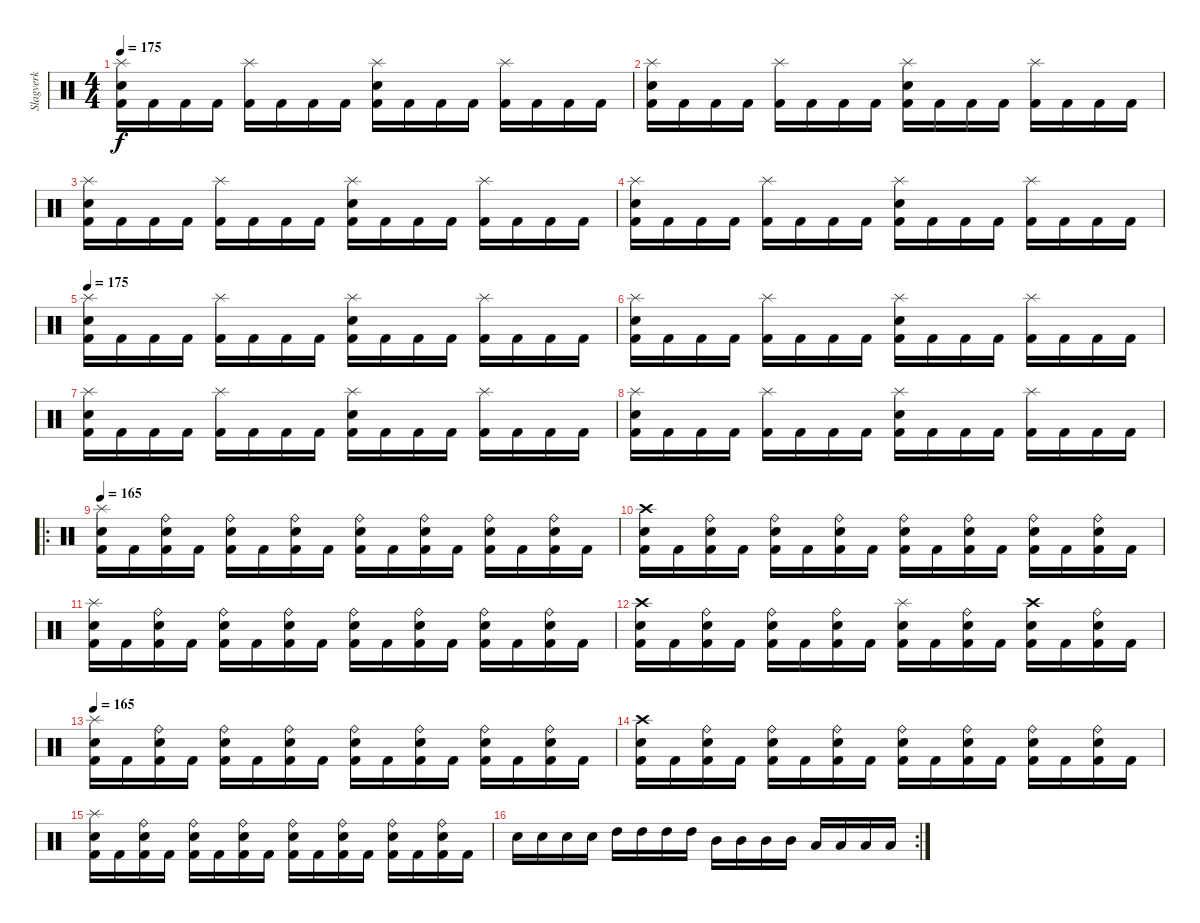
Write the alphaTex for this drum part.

\track ("Slagverk" "Slagverk") {instrument percussion}
\staff {score}
\articulation defaults
\ts (4 4)
\tempo 175
\clef neutral
\ks c
("Splash (hit)" "Electric Snare (hit)" "Kick (hit) 2").16{dy f} "Kick (hit) 2".16 "Kick (hit) 2".16 "Kick (hit) 2".16 ("Splash (hit)" "Kick (hit) 2").16 "Kick (hit) 2".16 "Kick (hit) 2".16 "Kick (hit) 2".16 ("Splash (hit)" "Electric Snare (hit)" "Kick (hit) 2").16 "Kick (hit) 2".16 "Kick (hit) 2".16 "Kick (hit) 2".16 ("Splash (hit)" "Kick (hit) 2").16 "Kick (hit) 2".16 "Kick (hit) 2".16 "Kick (hit) 2".16 |
("Splash (hit)" "Electric Snare (hit)" "Kick (hit) 2").16 "Kick (hit) 2".16 "Kick (hit) 2".16 "Kick (hit) 2".16 ("Splash (hit)" "Kick (hit) 2").16 "Kick (hit) 2".16 "Kick (hit) 2".16 "Kick (hit) 2".16 ("Splash (hit)" "Electric Snare (hit)" "Kick (hit) 2").16 "Kick (hit) 2".16 "Kick (hit) 2".16 "Kick (hit) 2".16 ("Splash (hit)" "Kick (hit) 2").16 "Kick (hit) 2".16 "Kick (hit) 2".16 "Kick (hit) 2".16 |
("Splash (hit)" "Electric Snare (hit)" "Kick (hit) 2").16 "Kick (hit) 2".16 "Kick (hit) 2".16 "Kick (hit) 2".16 ("Splash (hit)" "Kick (hit) 2").16 "Kick (hit) 2".16 "Kick (hit) 2".16 "Kick (hit) 2".16 ("Splash (hit)" "Electric Snare (hit)" "Kick (hit) 2").16 "Kick (hit) 2".16 "Kick (hit) 2".16 "Kick (hit) 2".16 ("Splash (hit)" "Kick (hit) 2").16 "Kick (hit) 2".16 "Kick (hit) 2".16 "Kick (hit) 2".16 |
("Splash (hit)" "Electric Snare (hit)" "Kick (hit) 2").16 "Kick (hit) 2".16 "Kick (hit) 2".16 "Kick (hit) 2".16 ("Splash (hit)" "Kick (hit) 2").16 "Kick (hit) 2".16 "Kick (hit) 2".16 "Kick (hit) 2".16 ("Splash (hit)" "Electric Snare (hit)" "Kick (hit) 2").16 "Kick (hit) 2".16 "Kick (hit) 2".16 "Kick (hit) 2".16 ("Splash (hit)" "Kick (hit) 2").16 "Kick (hit) 2".16 "Kick (hit) 2".16 "Kick (hit) 2".16 |
\tempo 175
("Splash (hit)" "Electric Snare (hit)" "Kick (hit) 2").16 "Kick (hit) 2".16 "Kick (hit) 2".16 "Kick (hit) 2".16 ("Splash (hit)" "Kick (hit) 2").16 "Kick (hit) 2".16 "Kick (hit) 2".16 "Kick (hit) 2".16 ("Splash (hit)" "Electric Snare (hit)" "Kick (hit) 2").16 "Kick (hit) 2".16 "Kick (hit) 2".16 "Kick (hit) 2".16 ("Splash (hit)" "Kick (hit) 2").16 "Kick (hit) 2".16 "Kick (hit) 2".16 "Kick (hit) 2".16 |
("Splash (hit)" "Electric Snare (hit)" "Kick (hit) 2").16 "Kick (hit) 2".16 "Kick (hit) 2".16 "Kick (hit) 2".16 ("Splash (hit)" "Kick (hit) 2").16 "Kick (hit) 2".16 "Kick (hit) 2".16 "Kick (hit) 2".16 ("Splash (hit)" "Electric Snare (hit)" "Kick (hit) 2").16 "Kick (hit) 2".16 "Kick (hit) 2".16 "Kick (hit) 2".16 ("Splash (hit)" "Kick (hit) 2").16 "Kick (hit) 2".16 "Kick (hit) 2".16 "Kick (hit) 2".16 |
("Splash (hit)" "Electric Snare (hit)" "Kick (hit) 2").16 "Kick (hit) 2".16 "Kick (hit) 2".16 "Kick (hit) 2".16 ("Splash (hit)" "Kick (hit) 2").16 "Kick (hit) 2".16 "Kick (hit) 2".16 "Kick (hit) 2".16 ("Splash (hit)" "Electric Snare (hit)" "Kick (hit) 2").16 "Kick (hit) 2".16 "Kick (hit) 2".16 "Kick (hit) 2".16 ("Splash (hit)" "Kick (hit) 2").16 "Kick (hit) 2".16 "Kick (hit) 2".16 "Kick (hit) 2".16 |
("Splash (hit)" "Electric Snare (hit)" "Kick (hit) 2").16 "Kick (hit) 2".16 "Kick (hit) 2".16 "Kick (hit) 2".16 ("Splash (hit)" "Kick (hit) 2").16 "Kick (hit) 2".16 "Kick (hit) 2".16 "Kick (hit) 2".16 ("Splash (hit)" "Electric Snare (hit)" "Kick (hit) 2").16 "Kick (hit) 2".16 "Kick (hit) 2".16 "Kick (hit) 2".16 ("Splash (hit)" "Kick (hit) 2").16 "Kick (hit) 2".16 "Kick (hit) 2".16 "Kick (hit) 2".16 |
\ro
\tempo 165
("Splash (hit)" "Electric Snare (hit)" "Kick (hit) 2").16 "Kick (hit) 2".16 ("Ride (bell)" "Electric Snare (hit)" "Kick (hit) 2").16 "Kick (hit) 2".16 ("Ride (bell)" "Electric Snare (hit)" "Kick (hit) 2").16 "Kick (hit) 2".16 ("Ride (bell)" "Electric Snare (hit)" "Kick (hit) 2").16 "Kick (hit) 2".16 ("Ride (bell)" "Electric Snare (hit)" "Kick (hit) 2").16 "Kick (hit) 2".16 ("Ride (bell)" "Electric Snare (hit)" "Kick (hit) 2").16 "Kick (hit) 2".16 ("Ride (bell)" "Electric Snare (hit)" "Kick (hit) 2").16 "Kick (hit) 2".16 ("Ride (bell)" "Electric Snare (hit)" "Kick (hit) 2").16 "Kick (hit) 2".16 |
("Crash high (hit)" "Electric Snare (hit)" "Kick (hit) 2").16 "Kick (hit) 2".16 ("Ride (bell)" "Electric Snare (hit)" "Kick (hit) 2").16 "Kick (hit) 2".16 ("Ride (bell)" "Electric Snare (hit)" "Kick (hit) 2").16 "Kick (hit) 2".16 ("Ride (bell)" "Electric Snare (hit)" "Kick (hit) 2").16 "Kick (hit) 2".16 ("Ride (bell)" "Electric Snare (hit)" "Kick (hit) 2").16 "Kick (hit) 2".16 ("Ride (bell)" "Electric Snare (hit)" "Kick (hit) 2").16 "Kick (hit) 2".16 ("Ride (bell)" "Electric Snare (hit)" "Kick (hit) 2").16 "Kick (hit) 2".16 ("Ride (bell)" "Electric Snare (hit)" "Kick (hit) 2").16 "Kick (hit) 2".16 |
("Splash (hit)" "Electric Snare (hit)" "Kick (hit) 2").16 "Kick (hit) 2".16 ("Ride (bell)" "Electric Snare (hit)" "Kick (hit) 2").16 "Kick (hit) 2".16 ("Ride (bell)" "Electric Snare (hit)" "Kick (hit) 2").16 "Kick (hit) 2".16 ("Ride (bell)" "Electric Snare (hit)" "Kick (hit) 2").16 "Kick (hit) 2".16 ("Ride (bell)" "Electric Snare (hit)" "Kick (hit) 2").16 "Kick (hit) 2".16 ("Ride (bell)" "Electric Snare (hit)" "Kick (hit) 2").16 "Kick (hit) 2".16 ("Ride (bell)" "Electric Snare (hit)" "Kick (hit) 2").16 "Kick (hit) 2".16 ("Ride (bell)" "Electric Snare (hit)" "Kick (hit) 2").16 "Kick (hit) 2".16 |
("Crash high (hit)" "Electric Snare (hit)" "Kick (hit) 2").16 "Kick (hit) 2".16 ("Ride (bell)" "Electric Snare (hit)" "Kick (hit) 2").16 "Kick (hit) 2".16 ("Ride (bell)" "Electric Snare (hit)" "Kick (hit) 2").16 "Kick (hit) 2".16 ("Ride (bell)" "Electric Snare (hit)" "Kick (hit) 2").16 "Kick (hit) 2".16 ("Splash (hit)" "Electric Snare (hit)" "Kick (hit) 2").16 "Kick (hit) 2".16 ("Ride (bell)" "Electric Snare (hit)" "Kick (hit) 2").16 "Kick (hit) 2".16 ("Crash high (hit)" "Electric Snare (hit)" "Kick (hit) 2").16 "Kick (hit) 2".16 ("Ride (bell)" "Electric Snare (hit)" "Kick (hit) 2").16 "Kick (hit) 2".16 |
\tempo 165
("Splash (hit)" "Electric Snare (hit)" "Kick (hit) 2").16 "Kick (hit) 2".16 ("Ride (bell)" "Electric Snare (hit)" "Kick (hit) 2").16 "Kick (hit) 2".16 ("Ride (bell)" "Electric Snare (hit)" "Kick (hit) 2").16 "Kick (hit) 2".16 ("Ride (bell)" "Electric Snare (hit)" "Kick (hit) 2").16 "Kick (hit) 2".16 ("Ride (bell)" "Electric Snare (hit)" "Kick (hit) 2").16 "Kick (hit) 2".16 ("Ride (bell)" "Electric Snare (hit)" "Kick (hit) 2").16 "Kick (hit) 2".16 ("Ride (bell)" "Electric Snare (hit)" "Kick (hit) 2").16 "Kick (hit) 2".16 ("Ride (bell)" "Electric Snare (hit)" "Kick (hit) 2").16 "Kick (hit) 2".16 |
("Crash high (hit)" "Electric Snare (hit)" "Kick (hit) 2").16 "Kick (hit) 2".16 ("Ride (bell)" "Electric Snare (hit)" "Kick (hit) 2").16 "Kick (hit) 2".16 ("Ride (bell)" "Electric Snare (hit)" "Kick (hit) 2").16 "Kick (hit) 2".16 ("Ride (bell)" "Electric Snare (hit)" "Kick (hit) 2").16 "Kick (hit) 2".16 ("Ride (bell)" "Electric Snare (hit)" "Kick (hit) 2").16 "Kick (hit) 2".16 ("Ride (bell)" "Electric Snare (hit)" "Kick (hit) 2").16 "Kick (hit) 2".16 ("Ride (bell)" "Electric Snare (hit)" "Kick (hit) 2").16 "Kick (hit) 2".16 ("Ride (bell)" "Electric Snare (hit)" "Kick (hit) 2").16 "Kick (hit) 2".16 |
("Splash (hit)" "Electric Snare (hit)" "Kick (hit) 2").16 "Kick (hit) 2".16 ("Ride (bell)" "Electric Snare (hit)" "Kick (hit) 2").16 "Kick (hit) 2".16 ("Ride (bell)" "Electric Snare (hit)" "Kick (hit) 2").16 "Kick (hit) 2".16 ("Ride (bell)" "Electric Snare (hit)" "Kick (hit) 2").16 "Kick (hit) 2".16 ("Ride (bell)" "Electric Snare (hit)" "Kick (hit) 2").16 "Kick (hit) 2".16 ("Ride (bell)" "Electric Snare (hit)" "Kick (hit) 2").16 "Kick (hit) 2".16 ("Ride (bell)" "Electric Snare (hit)" "Kick (hit) 2").16 "Kick (hit) 2".16 ("Ride (bell)" "Electric Snare (hit)" "Kick (hit) 2").16 "Kick (hit) 2".16 |
\rc 2 "Electric Snare (hit)".16 "Electric Snare (hit)".16 "Electric Snare (hit)".16 "Electric Snare (hit)".16 "High Tom (hit)".16 "High Tom (hit)".16 "High Tom (hit)".16 "High Tom (hit)".16 "Mid Tom (hit)".16 "Mid Tom (hit)".16 "Mid Tom (hit)".16 "Mid Tom (hit)".16 "Low Tom (hit)".16 "Low Tom (hit)".16 "Low Tom (hit)".16 "Low Tom (hit)".16
